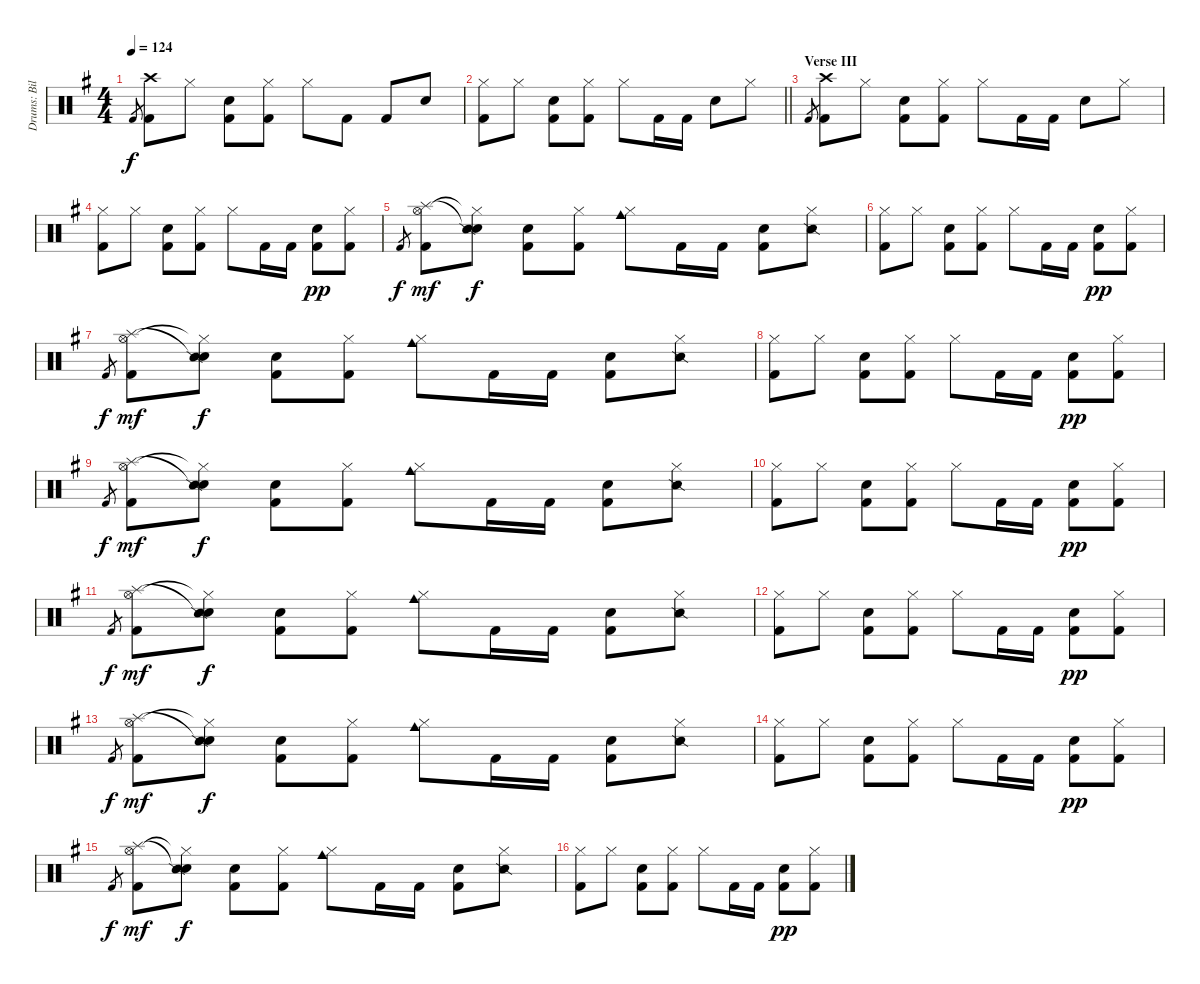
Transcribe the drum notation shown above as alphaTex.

\track ("Drums: Bill" "Drums: Bil") {instrument percussion}
\staff {score}
\articulation defaults
\ts (4 4)
\tempo 124
\clef neutral
\ks g "Kick (hit) 2".8{gr dy f}
("Crash high (hit)" "Kick (hit) 2").8 "Hi-Hat (closed)".8 ("Electric Snare (hit)" "Kick (hit) 2").8 ("Hi-Hat (closed)" "Kick (hit) 2").8 "Hi-Hat (closed)".8 "Kick (hit) 2".8 "Kick (hit) 2".8 "Electric Snare (hit)".8 |
\barLineRight lightlight
("Hi-Hat (closed)" "Kick (hit) 2").8 "Hi-Hat (closed)".8 ("Electric Snare (hit)" "Kick (hit) 2").8 ("Hi-Hat (closed)" "Kick (hit) 2").8 "Hi-Hat (closed)".8 "Kick (hit) 2".16 "Kick (hit) 2".16 "Electric Snare (hit)".8 "Hi-Hat (closed)".8 |
\section ("" "Verse III")
"Kick (hit) 2".8{gr} ("Crash high (hit)" "Kick (hit) 2").8 "Hi-Hat (closed)".8 ("Electric Snare (hit)" "Kick (hit) 2").8 ("Hi-Hat (closed)" "Kick (hit) 2").8 "Hi-Hat (closed)".8 "Kick (hit) 2".16 "Kick (hit) 2".16 "Electric Snare (hit)".8 "Hi-Hat (closed)".8 |
("Hi-Hat (closed)" "Kick (hit) 2").8 "Hi-Hat (closed)".8 ("Electric Snare (hit)" "Kick (hit) 2").8 ("Hi-Hat (closed)" "Kick (hit) 2").8 "Hi-Hat (closed)".8 "Kick (hit) 2".16 "Kick (hit) 2".16 ("Electric Snare (hit)" "Kick (hit) 2").8{dy pp} ("Hi-Hat (closed)" "Kick (hit) 2").8 |
"Kick (hit) 2".8{gr dy f} ("Splash (hit)" "Hi-Hat (open)" "Kick (hit) 2").8{dy mf} ("Snare (hit)"{t} "Hi-Hat (closed)"{t} "Snare (side stick) 2").8{dy f} ("Electric Snare (hit)" "Kick (hit) 2").8 ("Hi-Hat (closed)" "Kick (hit) 2").8 ("Hi-Hat (closed)" "Cowbell medium (hit)").8 "Kick (hit) 2".16 "Kick (hit) 2".16 ("Electric Snare (hit)" "Kick (hit) 2").8 ("Hi-Hat (closed)" "Snare (side stick) 2").8 |
("Hi-Hat (closed)" "Kick (hit) 2").8 "Hi-Hat (closed)".8 ("Electric Snare (hit)" "Kick (hit) 2").8 ("Hi-Hat (closed)" "Kick (hit) 2").8 "Hi-Hat (closed)".8 "Kick (hit) 2".16 "Kick (hit) 2".16 ("Electric Snare (hit)" "Kick (hit) 2").8{dy pp} ("Hi-Hat (closed)" "Kick (hit) 2").8 |
"Kick (hit) 2".8{gr dy f} ("Splash (hit)" "Hi-Hat (open)" "Kick (hit) 2").8{dy mf} ("Snare (hit)"{t} "Hi-Hat (closed)"{t} "Snare (side stick) 2").8{dy f} ("Electric Snare (hit)" "Kick (hit) 2").8 ("Hi-Hat (closed)" "Kick (hit) 2").8 ("Hi-Hat (closed)" "Cowbell medium (hit)").8 "Kick (hit) 2".16 "Kick (hit) 2".16 ("Electric Snare (hit)" "Kick (hit) 2").8 ("Hi-Hat (closed)" "Snare (side stick) 2").8 |
("Hi-Hat (closed)" "Kick (hit) 2").8 "Hi-Hat (closed)".8 ("Electric Snare (hit)" "Kick (hit) 2").8 ("Hi-Hat (closed)" "Kick (hit) 2").8 "Hi-Hat (closed)".8 "Kick (hit) 2".16 "Kick (hit) 2".16 ("Electric Snare (hit)" "Kick (hit) 2").8{dy pp} ("Hi-Hat (closed)" "Kick (hit) 2").8 |
"Kick (hit) 2".8{gr dy f} ("Splash (hit)" "Hi-Hat (open)" "Kick (hit) 2").8{dy mf} ("Snare (hit)"{t} "Hi-Hat (closed)"{t} "Snare (side stick) 2").8{dy f} ("Electric Snare (hit)" "Kick (hit) 2").8 ("Hi-Hat (closed)" "Kick (hit) 2").8 ("Hi-Hat (closed)" "Cowbell medium (hit)").8 "Kick (hit) 2".16 "Kick (hit) 2".16 ("Electric Snare (hit)" "Kick (hit) 2").8 ("Hi-Hat (closed)" "Snare (side stick) 2").8 |
("Hi-Hat (closed)" "Kick (hit) 2").8 "Hi-Hat (closed)".8 ("Electric Snare (hit)" "Kick (hit) 2").8 ("Hi-Hat (closed)" "Kick (hit) 2").8 "Hi-Hat (closed)".8 "Kick (hit) 2".16 "Kick (hit) 2".16 ("Electric Snare (hit)" "Kick (hit) 2").8{dy pp} ("Hi-Hat (closed)" "Kick (hit) 2").8 |
"Kick (hit) 2".8{gr dy f} ("Splash (hit)" "Hi-Hat (open)" "Kick (hit) 2").8{dy mf} ("Snare (hit)"{t} "Hi-Hat (closed)"{t} "Snare (side stick) 2").8{dy f} ("Electric Snare (hit)" "Kick (hit) 2").8 ("Hi-Hat (closed)" "Kick (hit) 2").8 ("Hi-Hat (closed)" "Cowbell medium (hit)").8 "Kick (hit) 2".16 "Kick (hit) 2".16 ("Electric Snare (hit)" "Kick (hit) 2").8 ("Hi-Hat (closed)" "Snare (side stick) 2").8 |
("Hi-Hat (closed)" "Kick (hit) 2").8 "Hi-Hat (closed)".8 ("Electric Snare (hit)" "Kick (hit) 2").8 ("Hi-Hat (closed)" "Kick (hit) 2").8 "Hi-Hat (closed)".8 "Kick (hit) 2".16 "Kick (hit) 2".16 ("Electric Snare (hit)" "Kick (hit) 2").8{dy pp} ("Hi-Hat (closed)" "Kick (hit) 2").8 |
"Kick (hit) 2".8{gr dy f} ("Splash (hit)" "Hi-Hat (open)" "Kick (hit) 2").8{dy mf} ("Snare (hit)"{t} "Hi-Hat (closed)"{t} "Snare (side stick) 2").8{dy f} ("Electric Snare (hit)" "Kick (hit) 2").8 ("Hi-Hat (closed)" "Kick (hit) 2").8 ("Hi-Hat (closed)" "Cowbell medium (hit)").8 "Kick (hit) 2".16 "Kick (hit) 2".16 ("Electric Snare (hit)" "Kick (hit) 2").8 ("Hi-Hat (closed)" "Snare (side stick) 2").8 |
("Hi-Hat (closed)" "Kick (hit) 2").8 "Hi-Hat (closed)".8 ("Electric Snare (hit)" "Kick (hit) 2").8 ("Hi-Hat (closed)" "Kick (hit) 2").8 "Hi-Hat (closed)".8 "Kick (hit) 2".16 "Kick (hit) 2".16 ("Electric Snare (hit)" "Kick (hit) 2").8{dy pp} ("Hi-Hat (closed)" "Kick (hit) 2").8 |
"Kick (hit) 2".8{gr dy f} ("Splash (hit)" "Hi-Hat (open)" "Kick (hit) 2").8{dy mf} ("Snare (hit)"{t} "Hi-Hat (closed)"{t} "Snare (side stick) 2").8{dy f} ("Electric Snare (hit)" "Kick (hit) 2").8 ("Hi-Hat (closed)" "Kick (hit) 2").8 ("Hi-Hat (closed)" "Cowbell medium (hit)").8 "Kick (hit) 2".16 "Kick (hit) 2".16 ("Electric Snare (hit)" "Kick (hit) 2").8 ("Hi-Hat (closed)" "Snare (side stick) 2").8 |
("Hi-Hat (closed)" "Kick (hit) 2").8 "Hi-Hat (closed)".8 ("Electric Snare (hit)" "Kick (hit) 2").8 ("Hi-Hat (closed)" "Kick (hit) 2").8 "Hi-Hat (closed)".8 "Kick (hit) 2".16 "Kick (hit) 2".16 ("Electric Snare (hit)" "Kick (hit) 2").8{dy pp} ("Hi-Hat (closed)" "Kick (hit) 2").8
